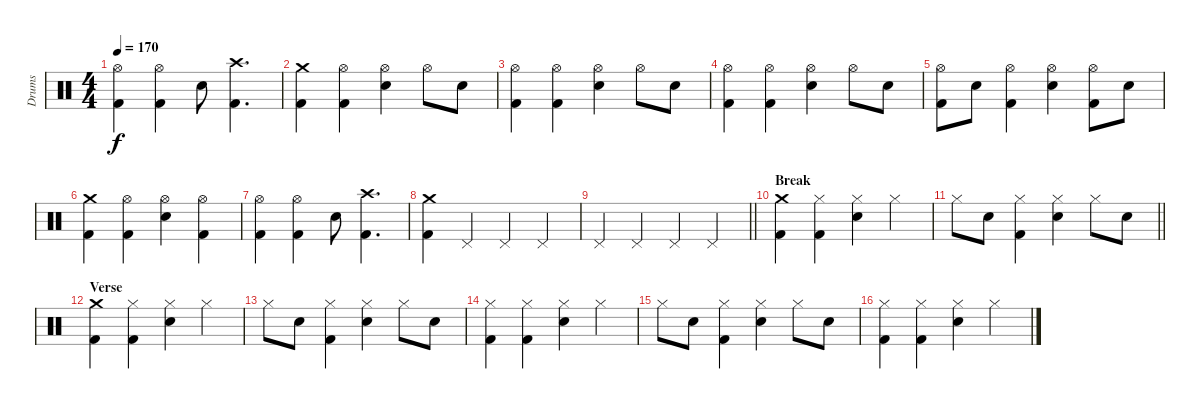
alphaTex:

\track ("Drums" "Drums") {instrument percussion}
\staff {score}
\articulation defaults
\ts (4 4)
\tempo 170
\clef neutral
\ks c
("Hi-Hat (open)" "Kick (hit) 2").4{dy f} ("Hi-Hat (open)" "Kick (hit) 2").4 "Electric Snare (hit)".8 ("Crash high (hit)" "Kick (hit) 2").4{d} |
("Crash medium (hit)" "Kick (hit) 2").4 ("Hi-Hat (open)" "Kick (hit) 2").4 ("Hi-Hat (open)" "Electric Snare (hit)").4 "Hi-Hat (open)".8 "Electric Snare (hit)".8 |
("Hi-Hat (open)" "Kick (hit) 2").4 ("Hi-Hat (open)" "Kick (hit) 2").4 ("Hi-Hat (open)" "Electric Snare (hit)").4 "Hi-Hat (open)".8 "Electric Snare (hit)".8 |
("Hi-Hat (open)" "Kick (hit) 2").4 ("Hi-Hat (open)" "Kick (hit) 2").4 ("Hi-Hat (open)" "Electric Snare (hit)").4 "Hi-Hat (open)".8 "Electric Snare (hit)".8 |
("Hi-Hat (open)" "Kick (hit) 2").8 "Electric Snare (hit)".8 ("Hi-Hat (open)" "Kick (hit) 2").4 ("Hi-Hat (open)" "Electric Snare (hit)").4 ("Hi-Hat (open)" "Kick (hit) 2").8 "Electric Snare (hit)".8 |
("Crash medium (hit)" "Kick (hit) 2").4 ("Hi-Hat (open)" "Kick (hit) 2").4 ("Hi-Hat (open)" "Electric Snare (hit)").4 ("Hi-Hat (open)" "Kick (hit) 2").4 |
("Hi-Hat (open)" "Kick (hit) 2").4 ("Hi-Hat (open)" "Kick (hit) 2").4 "Electric Snare (hit)".8 ("Crash high (hit)" "Kick (hit) 2").4{d} |
("Crash medium (hit)" "Kick (hit) 2").4 "Pedal Hi-Hat (hit)".4 "Pedal Hi-Hat (hit)".4 "Pedal Hi-Hat (hit)".4 |
\barLineRight lightlight "Pedal Hi-Hat (hit)".4 "Pedal Hi-Hat (hit)".4 "Pedal Hi-Hat (hit)".4 "Pedal Hi-Hat (hit)".4
|
\section ("" "Break")
("Crash medium (hit)" "Kick (hit) 2").4 ("Hi-Hat (closed)" "Kick (hit) 2").4 ("Hi-Hat (closed)" "Electric Snare (hit)").4 "Hi-Hat (closed)".4 |
\barLineRight lightlight "Hi-Hat (closed)".8 "Electric Snare (hit)".8
("Hi-Hat (closed)" "Kick (hit) 2").4 ("Hi-Hat (closed)" "Electric Snare (hit)").4 "Hi-Hat (closed)".8 "Electric Snare (hit)".8 |
\section ("" "Verse")
("Crash medium (hit)" "Kick (hit) 2").4 ("Hi-Hat (closed)" "Kick (hit) 2").4 ("Hi-Hat (closed)" "Electric Snare (hit)").4 "Hi-Hat (closed)".4 |
"Hi-Hat (closed)".8 "Electric Snare (hit)".8 ("Hi-Hat (closed)" "Kick (hit) 2").4 ("Hi-Hat (closed)" "Electric Snare (hit)").4 "Hi-Hat (closed)".8 "Electric Snare (hit)".8 |
("Hi-Hat (closed)" "Kick (hit) 2").4 ("Hi-Hat (closed)" "Kick (hit) 2").4 ("Hi-Hat (closed)" "Electric Snare (hit)").4 "Hi-Hat (closed)".4 |
"Hi-Hat (closed)".8 "Electric Snare (hit)".8 ("Hi-Hat (closed)" "Kick (hit) 2").4 ("Hi-Hat (closed)" "Electric Snare (hit)").4 "Hi-Hat (closed)".8 "Electric Snare (hit)".8 |
("Hi-Hat (closed)" "Kick (hit) 2").4 ("Hi-Hat (closed)" "Kick (hit) 2").4 ("Hi-Hat (closed)" "Electric Snare (hit)").4 "Hi-Hat (closed)".4
